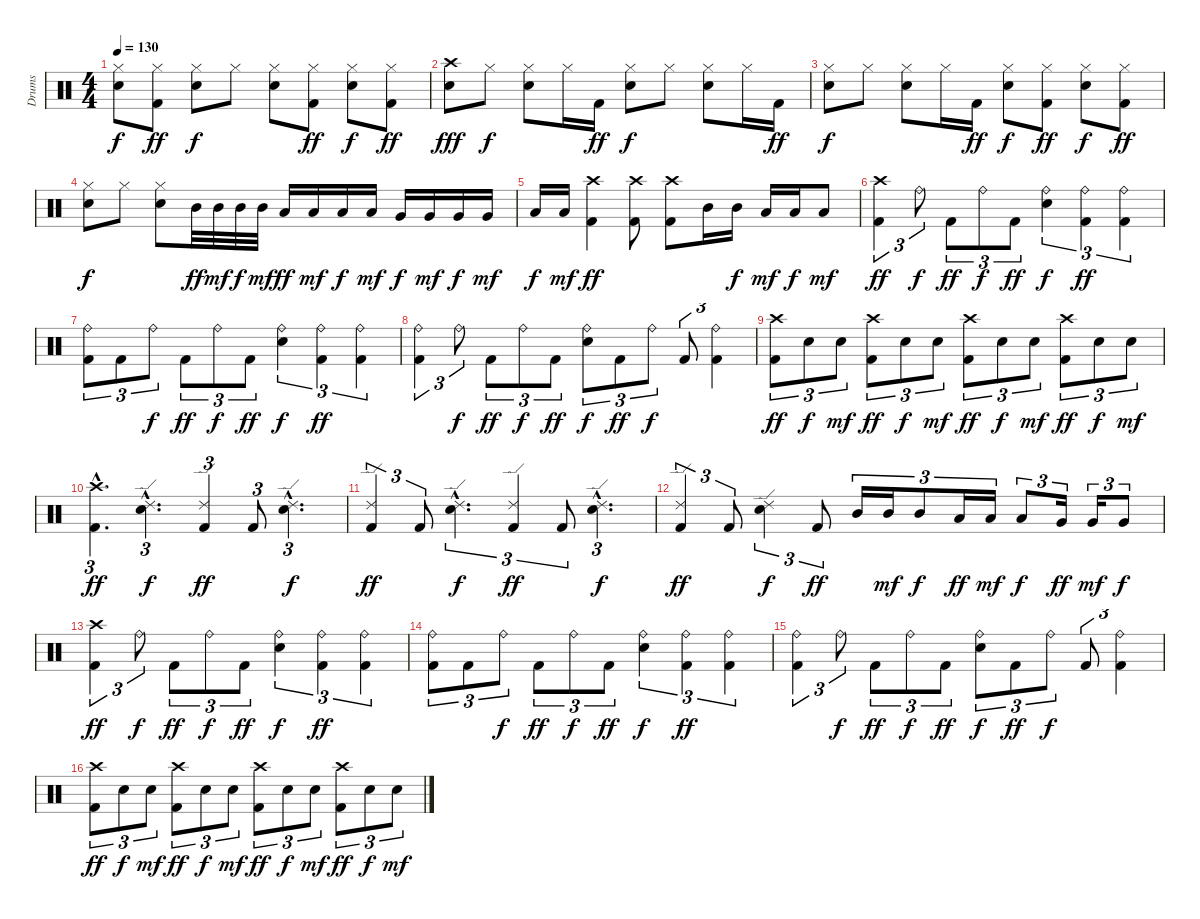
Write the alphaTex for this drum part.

\track ("Drums" "Drums") {instrument percussion}
\staff {score}
\articulation defaults
\ts (4 4)
\tempo 130
\clef neutral
\ks c
("Hi-Hat (closed)" "Snare (hit) 2").8{dy f} ("Hi-Hat (closed)" "Kick (hit) 2").8{dy ff} ("Hi-Hat (closed)" "Snare (hit) 2").8{dy f} "Hi-Hat (closed)".8 ("Hi-Hat (closed)" "Snare (hit) 2").8 ("Hi-Hat (closed)" "Kick (hit) 2").8{dy ff} ("Hi-Hat (closed)" "Snare (hit) 2").8{dy f} ("Hi-Hat (closed)" "Kick (hit) 2").8{dy ff} |
("Crash high (hit)" "Snare (hit) 2").8{dy fff} "Hi-Hat (closed)".8{dy f} ("Hi-Hat (closed)" "Snare (hit) 2").8 "Hi-Hat (closed)".16 "Kick (hit) 2".16{dy ff} ("Hi-Hat (closed)" "Snare (hit) 2").8{dy f} "Hi-Hat (closed)".8 ("Hi-Hat (closed)" "Snare (hit) 2").8 "Hi-Hat (closed)".16 "Kick (hit) 2".16{dy ff} |
("Hi-Hat (closed)" "Snare (hit) 2").8{dy f} "Hi-Hat (closed)".8 ("Hi-Hat (closed)" "Snare (hit) 2").8 "Hi-Hat (closed)".16 "Kick (hit) 2".16{dy ff} ("Hi-Hat (closed)" "Snare (hit) 2").8{dy f} ("Hi-Hat (closed)" "Kick (hit) 2").8{dy ff} ("Hi-Hat (closed)" "Snare (hit) 2").8{dy f} ("Hi-Hat (closed)" "Kick (hit) 2").8{dy ff} |
("Hi-Hat (closed)" "Snare (hit) 2").8{dy f} "Hi-Hat (closed)".8 ("Hi-Hat (closed)" "Snare (hit) 2").8 "Mid Tom (hit)".32{dy ff} "Mid Tom (hit)".32{dy mf} "Mid Tom (hit)".32{dy f} "Mid Tom (hit)".32{dy mf} "Low Tom (hit)".16{dy ff} "Low Tom (hit)".16{dy mf} "Low Tom (hit)".16{dy f} "Low Tom (hit)".16{dy mf} "Very Low Tom (hit)".16{dy f} "Very Low Tom (hit)".16{dy mf} "Very Low Tom (hit)".16{dy f} "Very Low Tom (hit)".16{dy mf} |
"Low Floor Tom (hit)".16{dy f} "Low Floor Tom (hit)".16{dy mf} ("Crash high (hit)" "Kick (hit) 2").4{dy ff} ("Crash high (hit)" "Kick (hit) 2").8 ("Crash high (hit)" "Kick (hit) 2").8 "Mid Tom (hit)".16 "Mid Tom (hit)".16{dy f} "Low Tom (hit)".16{dy mf} "Low Tom (hit)".16{dy f} "Low Tom (hit)".8{dy mf} |
("Crash high (hit)" "Kick (hit) 2").4{tu (3 2) dy ff} "Ride (bell)".8{tu (3 2) dy f} "Kick (hit) 2".8{tu (3 2) dy ff} "Ride (bell)".8{tu (3 2) dy f} "Kick (hit) 2".8{tu (3 2) dy ff} ("Ride (bell)" "Snare (hit) 2").4{tu (3 2) dy f} ("Ride (bell)" "Kick (hit) 2").4{tu (3 2) dy ff} ("Ride (bell)" "Kick (hit) 2").4{tu (3 2)} |
("Ride (bell)" "Kick (hit) 2").8{tu (3 2)} "Kick (hit) 2".8{tu (3 2)} "Ride (bell)".8{tu (3 2) dy f} "Kick (hit) 2".8{tu (3 2) dy ff} "Ride (bell)".8{tu (3 2) dy f} "Kick (hit) 2".8{tu (3 2) dy ff} ("Ride (bell)" "Snare (hit) 2").4{tu (3 2) dy f} ("Ride (bell)" "Kick (hit) 2").4{tu (3 2) dy ff} ("Ride (bell)" "Kick (hit) 2").4{tu (3 2)} |
("Ride (bell)" "Kick (hit) 2").4{tu (3 2)} "Ride (bell)".8{tu (3 2) dy f} "Kick (hit) 2".8{tu (3 2) dy ff} "Ride (bell)".8{tu (3 2) dy f} "Kick (hit) 2".8{tu (3 2) dy ff} ("Ride (bell)" "Snare (hit) 2").8{tu (3 2) dy f} "Kick (hit) 2".8{tu (3 2) dy ff} "Ride (bell)".8{tu (3 2) dy f} "Kick (hit) 2".8{tu (3 2)} ("Ride (bell)" "Kick (hit) 2").4{tu (3 2)} |
("Crash high (hit)" "Kick (hit) 2").8{tu (3 2) dy ff} "Snare (hit) 2".8{tu (3 2) dy f} "Snare (hit) 2".8{tu (3 2) dy mf} ("Crash high (hit)" "Kick (hit) 2").8{tu (3 2) dy ff} "Snare (hit) 2".8{tu (3 2) dy f} "Snare (hit) 2".8{tu (3 2) dy mf} ("Crash high (hit)" "Kick (hit) 2").8{tu (3 2) dy ff} "Snare (hit) 2".8{tu (3 2) dy f} "Snare (hit) 2".8{tu (3 2) dy mf} ("Crash high (hit)" "Kick (hit) 2").8{tu (3 2) dy ff} "Snare (hit) 2".8{tu (3 2) dy f} "Snare (hit) 2".8{tu (3 2) dy mf} |
("Crash high (hit)"{hac} "Kick (hit) 2"{hac}).4{d tu (3 2) dy ff} ("Ride (edge) 2"{hac} "Snare (hit) 2"{hac}).4{d tu (3 2) dy f} ("Ride (edge) 2" "Kick (hit) 2").4{tu (3 2) dy ff} "Kick (hit) 2".8{tu (3 2)} ("Ride (edge) 2"{hac} "Snare (hit) 2"{hac}).4{d tu (3 2) dy f} |
("Ride (edge) 2" "Kick (hit) 2").4{tu (3 2) dy ff} "Kick (hit) 2".8{tu (3 2)} ("Ride (edge) 2"{hac} "Snare (hit) 2"{hac}).4{d tu (3 2) dy f} ("Ride (edge) 2" "Kick (hit) 2").4{tu (3 2) dy ff} "Kick (hit) 2".8{tu (3 2)} ("Ride (edge) 2"{hac} "Snare (hit) 2"{hac}).4{d tu (3 2) dy f} |
("Ride (edge) 2" "Kick (hit) 2").4{tu (3 2) dy ff} "Kick (hit) 2".8{tu (3 2)} ("Ride (edge) 2" "Snare (hit) 2").4{tu (3 2) dy f} "Kick (hit) 2".8{tu (3 2) dy ff} "Mid Tom (hit)".16{tu (3 2)} "Mid Tom (hit)".16{tu (3 2) dy mf} "Mid Tom (hit)".8{tu (3 2) dy f} "Low Tom (hit)".16{tu (3 2) dy ff} "Low Tom (hit)".16{tu (3 2) dy mf} "Low Tom (hit)".8{tu (3 2) dy f} "Very Low Tom (hit)".16{tu (3 2) dy ff} "Very Low Tom (hit)".16{tu (3 2) dy mf} "Very Low Tom (hit)".8{tu (3 2) dy f} |
("Crash high (hit)" "Kick (hit) 2").4{tu (3 2) dy ff} "Ride (bell)".8{tu (3 2) dy f} "Kick (hit) 2".8{tu (3 2) dy ff} "Ride (bell)".8{tu (3 2) dy f} "Kick (hit) 2".8{tu (3 2) dy ff} ("Ride (bell)" "Snare (hit) 2").4{tu (3 2) dy f} ("Ride (bell)" "Kick (hit) 2").4{tu (3 2) dy ff} ("Ride (bell)" "Kick (hit) 2").4{tu (3 2)} |
("Ride (bell)" "Kick (hit) 2").8{tu (3 2)} "Kick (hit) 2".8{tu (3 2)} "Ride (bell)".8{tu (3 2) dy f} "Kick (hit) 2".8{tu (3 2) dy ff} "Ride (bell)".8{tu (3 2) dy f} "Kick (hit) 2".8{tu (3 2) dy ff} ("Ride (bell)" "Snare (hit) 2").4{tu (3 2) dy f} ("Ride (bell)" "Kick (hit) 2").4{tu (3 2) dy ff} ("Ride (bell)" "Kick (hit) 2").4{tu (3 2)} |
("Ride (bell)" "Kick (hit) 2").4{tu (3 2)} "Ride (bell)".8{tu (3 2) dy f} "Kick (hit) 2".8{tu (3 2) dy ff} "Ride (bell)".8{tu (3 2) dy f} "Kick (hit) 2".8{tu (3 2) dy ff} ("Ride (bell)" "Snare (hit) 2").8{tu (3 2) dy f} "Kick (hit) 2".8{tu (3 2) dy ff} "Ride (bell)".8{tu (3 2) dy f} "Kick (hit) 2".8{tu (3 2)} ("Ride (bell)" "Kick (hit) 2").4{tu (3 2)} |
("Crash high (hit)" "Kick (hit) 2").8{tu (3 2) dy ff} "Snare (hit) 2".8{tu (3 2) dy f} "Snare (hit) 2".8{tu (3 2) dy mf} ("Crash high (hit)" "Kick (hit) 2").8{tu (3 2) dy ff} "Snare (hit) 2".8{tu (3 2) dy f} "Snare (hit) 2".8{tu (3 2) dy mf} ("Crash high (hit)" "Kick (hit) 2").8{tu (3 2) dy ff} "Snare (hit) 2".8{tu (3 2) dy f} "Snare (hit) 2".8{tu (3 2) dy mf} ("Crash high (hit)" "Kick (hit) 2").8{tu (3 2) dy ff} "Snare (hit) 2".8{tu (3 2) dy f} "Snare (hit) 2".8{tu (3 2) dy mf}
